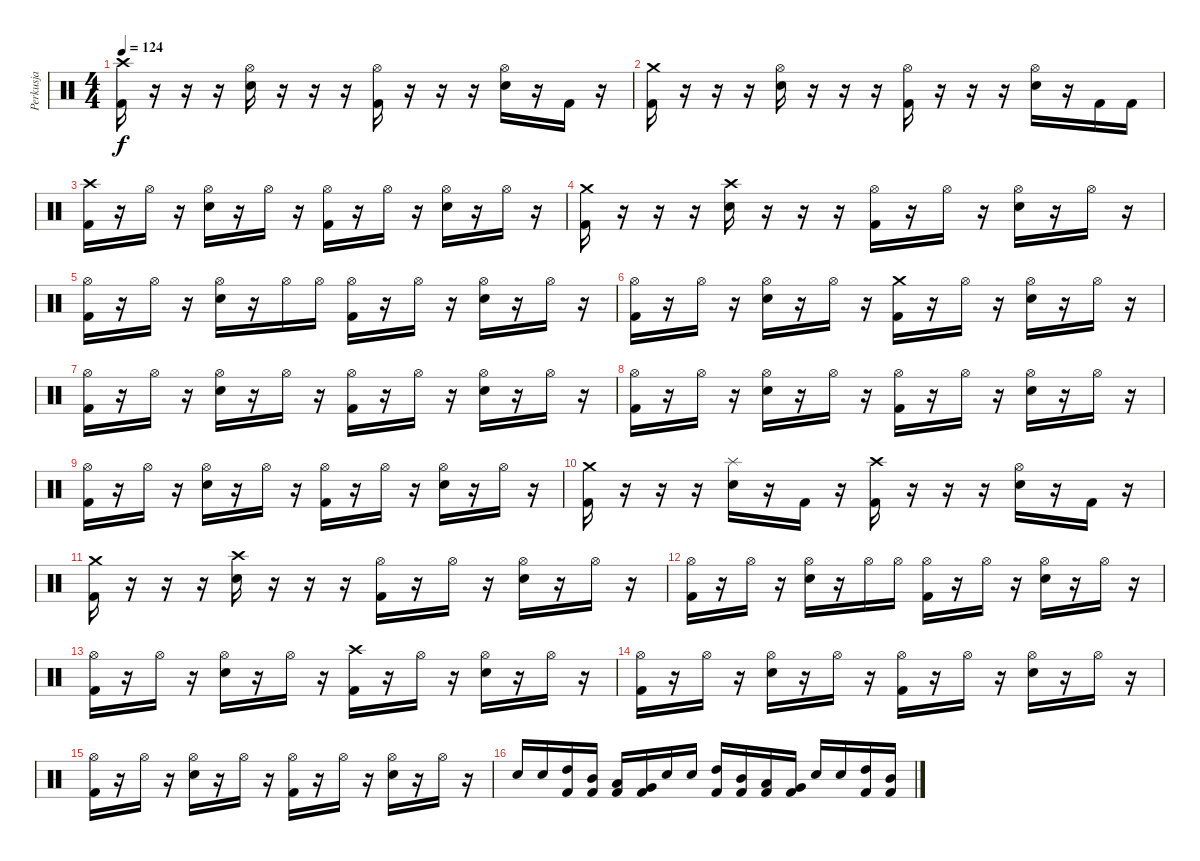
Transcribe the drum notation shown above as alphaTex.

\track ("Perkusja" "Perkusja") {instrument percussion}
\staff {score}
\articulation defaults
\ts (4 4)
\tempo 124
\clef neutral
\ks c
("Crash high (hit)" "Kick (hit) 2").16{dy f} r.16 r.16 r.16 ("Snare (hit) 2" "Hi-Hat (open)").16 r.16 r.16 r.16 ("Hi-Hat (open)" "Kick (hit) 2").16 r.16 r.16 r.16 ("Snare (hit) 2" "Hi-Hat (open)").16 r.16 "Kick (hit) 2".16 r.16 |
("Crash medium (hit)" "Kick (hit) 2").16 r.16 r.16 r.16 ("Snare (hit) 2" "Hi-Hat (open)").16 r.16 r.16 r.16 ("Hi-Hat (open)" "Kick (hit) 2").16 r.16 r.16 r.16 ("Snare (hit) 2" "Hi-Hat (open)").16 r.16 "Kick (hit) 2".16 "Kick (hit) 2".16 |
("Crash high (hit)" "Kick (hit) 2").16 r.16 "Hi-Hat (open)".16 r.16 ("Snare (hit) 2" "Hi-Hat (open)").16 r.16 "Hi-Hat (open)".16 r.16 ("Hi-Hat (open)" "Kick (hit) 2").16 r.16 "Hi-Hat (open)".16 r.16 ("Snare (hit) 2" "Hi-Hat (open)").16 r.16 "Hi-Hat (open)".16 r.16 |
("Crash medium (hit)" "Kick (hit) 2").16 r.16 r.16 r.16 ("Snare (hit) 2" "Crash high (hit)").16 r.16 r.16 r.16 ("Hi-Hat (open)" "Kick (hit) 2").16 r.16 "Hi-Hat (open)".16 r.16 ("Snare (hit) 2" "Hi-Hat (open)").16 r.16 "Hi-Hat (open)".16 r.16 |
("Hi-Hat (open)" "Kick (hit) 2").16 r.16 "Hi-Hat (open)".16 r.16 ("Snare (hit) 2" "Hi-Hat (open)").16 r.16 "Hi-Hat (open)".16 "Hi-Hat (open)".16 ("Hi-Hat (open)" "Kick (hit) 2").16 r.16 "Hi-Hat (open)".16 r.16 ("Snare (hit) 2" "Hi-Hat (open)").16 r.16 "Hi-Hat (open)".16 r.16 |
("Hi-Hat (open)" "Kick (hit) 2").16 r.16 "Hi-Hat (open)".16 r.16 ("Snare (hit) 2" "Hi-Hat (open)").16 r.16 "Hi-Hat (open)".16 r.16 ("Crash medium (hit)" "Kick (hit) 2").16 r.16 "Hi-Hat (open)".16 r.16 ("Snare (hit) 2" "Hi-Hat (open)").16 r.16 "Hi-Hat (open)".16 r.16 |
("Hi-Hat (open)" "Kick (hit) 2").16 r.16 "Hi-Hat (open)".16 r.16 ("Snare (hit) 2" "Hi-Hat (open)").16 r.16 "Hi-Hat (open)".16 r.16 ("Hi-Hat (open)" "Kick (hit) 2").16 r.16 "Hi-Hat (open)".16 r.16 ("Snare (hit) 2" "Hi-Hat (open)").16 r.16 "Hi-Hat (open)".16 r.16 |
("Hi-Hat (open)" "Kick (hit) 2").16 r.16 "Hi-Hat (open)".16 r.16 ("Snare (hit) 2" "Hi-Hat (open)").16 r.16 "Hi-Hat (open)".16 r.16 ("Hi-Hat (open)" "Kick (hit) 2").16 r.16 "Hi-Hat (open)".16 r.16 ("Snare (hit) 2" "Hi-Hat (open)").16 r.16 "Hi-Hat (open)".16 r.16 |
("Hi-Hat (open)" "Kick (hit) 2").16 r.16 "Hi-Hat (open)".16 r.16 ("Snare (hit) 2" "Hi-Hat (open)").16 r.16 "Hi-Hat (open)".16 r.16 ("Hi-Hat (open)" "Kick (hit) 2").16 r.16 "Hi-Hat (open)".16 r.16 ("Snare (hit) 2" "Hi-Hat (open)").16 r.16 "Hi-Hat (open)".16 r.16 |
("Crash medium (hit)" "Kick (hit) 2").16 r.16 r.16 r.16 ("Snare (hit) 2" "Splash (hit)").16 r.16 "Kick (hit) 2".16 r.16 ("Crash high (hit)" "Kick (hit) 2").16 r.16 r.16 r.16 ("Snare (hit) 2" "Hi-Hat (open)").16 r.16 "Kick (hit) 2".16 r.16 |
("Crash medium (hit)" "Kick (hit) 2").16 r.16 r.16 r.16 ("Snare (hit) 2" "Crash high (hit)").16 r.16 r.16 r.16 ("Hi-Hat (open)" "Kick (hit) 2").16 r.16 "Hi-Hat (open)".16 r.16 ("Snare (hit) 2" "Hi-Hat (open)").16 r.16 "Hi-Hat (open)".16 r.16 |
("Hi-Hat (open)" "Kick (hit) 2").16 r.16 "Hi-Hat (open)".16 r.16 ("Snare (hit) 2" "Hi-Hat (open)").16 r.16 "Hi-Hat (open)".16 "Hi-Hat (open)".16 ("Hi-Hat (open)" "Kick (hit) 2").16 r.16 "Hi-Hat (open)".16 r.16 ("Snare (hit) 2" "Hi-Hat (open)").16 r.16 "Hi-Hat (open)".16 r.16 |
("Hi-Hat (open)" "Kick (hit) 2").16 r.16 "Hi-Hat (open)".16 r.16 ("Snare (hit) 2" "Hi-Hat (open)").16 r.16 "Hi-Hat (open)".16 r.16 ("Crash high (hit)" "Kick (hit) 2").16 r.16 "Hi-Hat (open)".16 r.16 ("Snare (hit) 2" "Hi-Hat (open)").16 r.16 "Hi-Hat (open)".16 r.16 |
("Hi-Hat (open)" "Kick (hit) 2").16 r.16 "Hi-Hat (open)".16 r.16 ("Snare (hit) 2" "Hi-Hat (open)").16 r.16 "Hi-Hat (open)".16 r.16 ("Hi-Hat (open)" "Kick (hit) 2").16 r.16 "Hi-Hat (open)".16 r.16 ("Snare (hit) 2" "Hi-Hat (open)").16 r.16 "Hi-Hat (open)".16 r.16 |
("Hi-Hat (open)" "Kick (hit) 2").16 r.16 "Hi-Hat (open)".16 r.16 ("Snare (hit) 2" "Hi-Hat (open)").16 r.16 "Hi-Hat (open)".16 r.16 ("Hi-Hat (open)" "Kick (hit) 2").16 r.16 "Hi-Hat (open)".16 r.16 ("Snare (hit) 2" "Hi-Hat (open)").16 r.16 "Hi-Hat (open)".16 r.16 |
"Snare (hit) 2".16 "Snare (hit) 2".16 ("High Tom (hit)" "Kick (hit) 2").16 ("Mid Tom (hit)" "Kick (hit) 2").16 ("Low Tom (hit)" "Kick (hit) 2").16 ("Very Low Tom (hit)" "Kick (hit) 2").16 "Snare (hit) 2".16 "Snare (hit) 2".16 ("High Tom (hit)" "Kick (hit) 2").16 ("Mid Tom (hit)" "Kick (hit) 2").16 ("Low Tom (hit)" "Kick (hit) 2").16 ("Very Low Tom (hit)" "Kick (hit) 2").16 "Snare (hit) 2".16 "Snare (hit) 2".16 ("High Tom (hit)" "Kick (hit) 2").16 ("Mid Tom (hit)" "Kick (hit) 2").16
